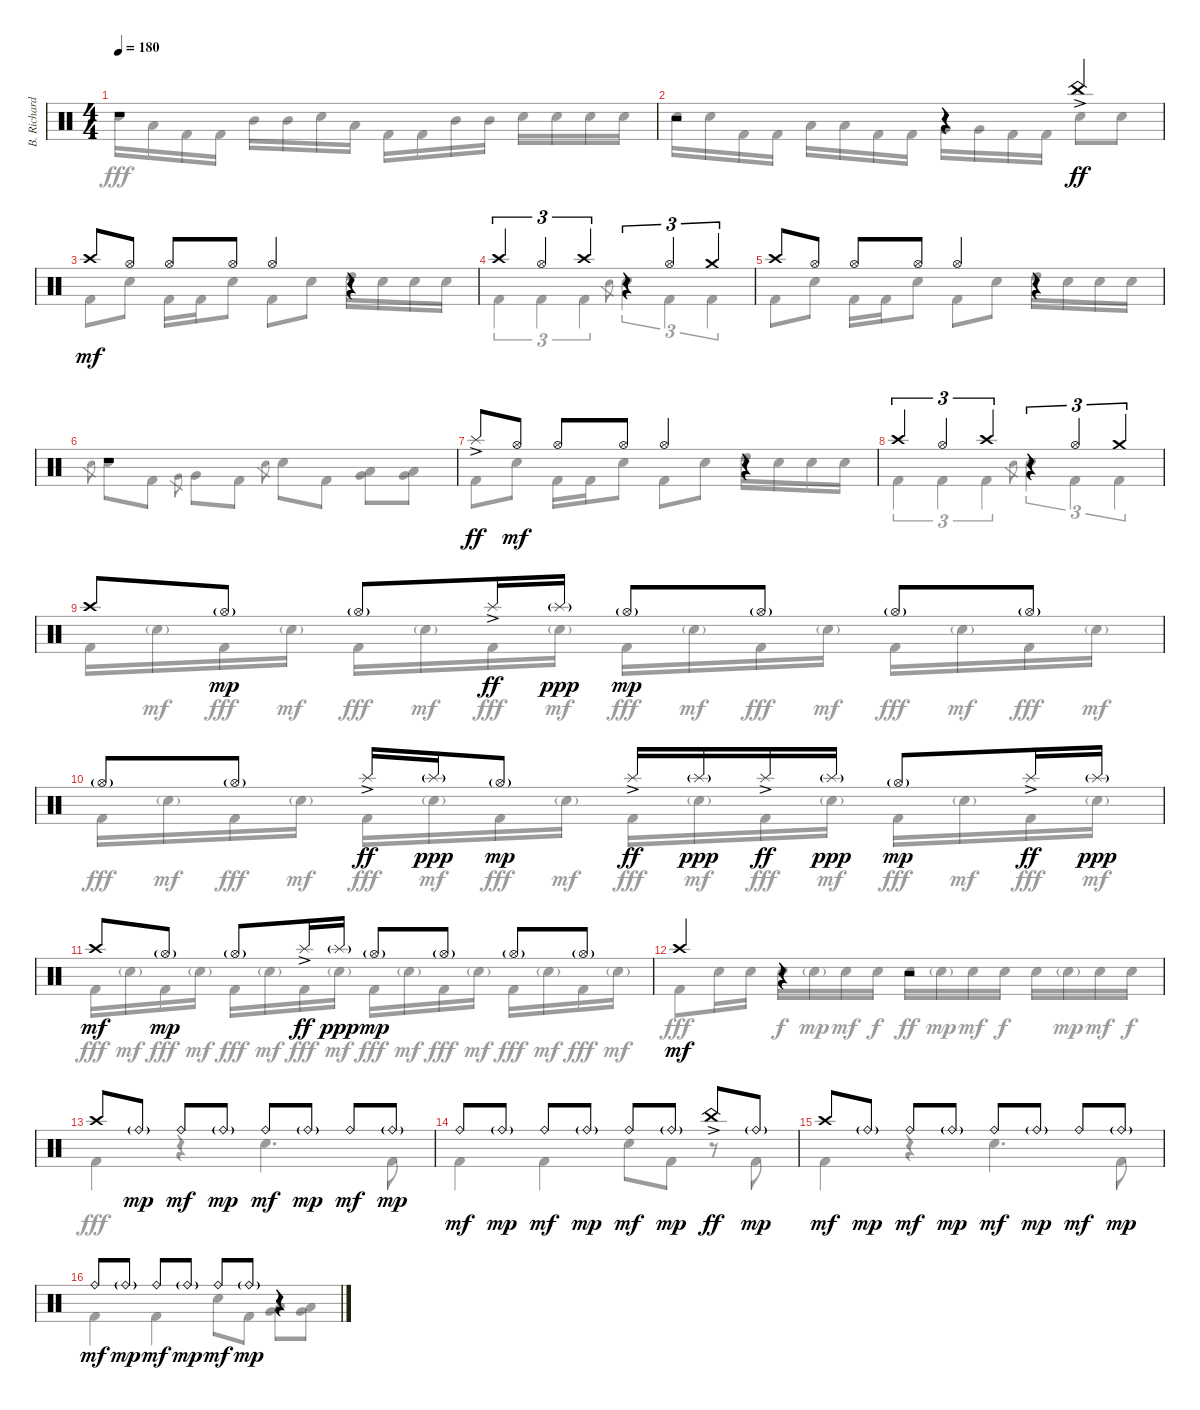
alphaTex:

\track ("B. Richardson Drums" "B. Richard") {instrument percussion}
\staff {score}
\articulation defaults
\voice
\ts (4 4)
\tempo 180
\clef neutral
\ks c
r.1{dy mf} |
r.2 r.4 "China (hit)"{ac}.4{dy ff} |
"Crash high (hit)".8{dy mf} "Hi-Hat (open)".8 "Hi-Hat (open)".8 "Hi-Hat (open)".8 "Hi-Hat (open)".4 r.4 |
"Crash high (hit)".4{tu (3 2)} "Hi-Hat (open)".4{tu (3 2)} "Crash high (hit)".4{tu (3 2)} r.4{tu (3 2)} "Hi-Hat (open)".4{tu (3 2)} "Crash medium (hit)".4{tu (3 2)} |
"Crash high (hit)".8 "Hi-Hat (open)".8 "Hi-Hat (open)".8 "Hi-Hat (open)".8 "Hi-Hat (open)".4 r.4 |
r.1 |
"Splash (hit)"{ac}.8{dy ff} "Hi-Hat (open)".8{dy mf} "Hi-Hat (open)".8 "Hi-Hat (open)".8 "Hi-Hat (open)".4 r.4 |
"Crash high (hit)".4{tu (3 2)} "Hi-Hat (open)".4{tu (3 2)} "Crash high (hit)".4{tu (3 2)} r.4{tu (3 2)} "Hi-Hat (open)".4{tu (3 2)} "Crash medium (hit)".4{tu (3 2)} |
"Crash high (hit)".8 "Hi-Hat (open)"{g}.8{dy mp} "Hi-Hat (open)"{g}.8 "Splash (hit)"{ac}.16{dy ff} "Splash (hit)"{g}.16{dy ppp} "Hi-Hat (open)"{g}.8{dy mp} "Hi-Hat (open)"{g}.8 "Hi-Hat (open)"{g}.8 "Hi-Hat (open)"{g}.8 |
"Hi-Hat (open)"{g}.8 "Hi-Hat (open)"{g}.8 "Splash (hit)"{ac}.16{dy ff} "Splash (hit)"{g}.16{dy ppp} "Hi-Hat (open)"{g}.8{dy mp} "Splash (hit)"{ac}.16{dy ff} "Splash (hit)"{g}.16{dy ppp} "Splash (hit)"{ac}.16{dy ff} "Splash (hit)"{g}.16{dy ppp} "Hi-Hat (open)"{g}.8{dy mp} "Splash (hit)"{ac}.16{dy ff} "Splash (hit)"{g}.16{dy ppp} |
"Crash high (hit)".8{dy mf} "Hi-Hat (open)"{g}.8{dy mp} "Hi-Hat (open)"{g}.8 "Splash (hit)"{ac}.16{dy ff} "Splash (hit)"{g}.16{dy ppp} "Hi-Hat (open)"{g}.8{dy mp} "Hi-Hat (open)"{g}.8 "Hi-Hat (open)"{g}.8 "Hi-Hat (open)"{g}.8 |
"Crash high (hit)".4{dy mf} r.4 r.2 |
"Crash high (hit)".8 "Ride (bell)"{g}.8{dy mp} "Ride (bell)".8{dy mf} "Ride (bell)"{g}.8{dy mp} "Ride (bell)".8{dy mf} "Ride (bell)"{g}.8{dy mp} "Ride (bell)".8{dy mf} "Ride (bell)"{g}.8{dy mp} |
"Ride (bell)".8{dy mf} "Ride (bell)"{g}.8{dy mp} "Ride (bell)".8{dy mf} "Ride (bell)"{g}.8{dy mp} "Ride (bell)".8{dy mf} "Ride (bell)"{g}.8{dy mp} "China (hit)"{ac}.8{dy ff} "Ride (bell)"{g}.8{dy mp} |
"Crash high (hit)".8{dy mf} "Ride (bell)"{g}.8{dy mp} "Ride (bell)".8{dy mf} "Ride (bell)"{g}.8{dy mp} "Ride (bell)".8{dy mf} "Ride (bell)"{g}.8{dy mp} "Ride (bell)".8{dy mf} "Ride (bell)"{g}.8{dy mp} |
"Ride (bell)".8{dy mf} "Ride (bell)"{g}.8{dy mp} "Ride (bell)".8{dy mf} "Ride (bell)"{g}.8{dy mp} "Ride (bell)".8{dy mf} "Ride (bell)"{g}.8{dy mp} r.4
\voice
\clef neutral
\ottava regular
\simile none
\ks c "Electric Snare (hit)".16{dy fff} "Low Tom (hit)".16 "Kick (hit) 2".16 "Kick (hit) 2".16 "Mid Tom (hit)".16 "Mid Tom (hit)".16 "Electric Snare (hit)".16 "Low Tom (hit)".16 "Kick (hit) 2".16 "Kick (hit) 2".16 "Mid Tom (hit)".16 "Mid Tom (hit)".16 "Electric Snare (hit)".16 "Electric Snare (hit)".16 "Electric Snare (hit)".16 "Electric Snare (hit)".16
|
"Electric Snare (hit)".16 "Electric Snare (hit)".16 "Kick (hit) 2".16 "Kick (hit) 2".16 "Low Tom (hit)".16 "Low Tom (hit)".16 "Kick (hit) 2".16 "Kick (hit) 2".16 "Very Low Tom (hit)".16 "Very Low Tom (hit)".16 "Kick (hit) 2".16 "Kick (hit) 2".16 "Electric Snare (hit)".8 "Electric Snare (hit)".8 |
"Kick (hit) 2".8 "Electric Snare (hit)".8 "Kick (hit) 2".16 "Kick (hit) 2".16 "Electric Snare (hit)".8 "Kick (hit) 2".8 "Electric Snare (hit)".8 "High Tom (hit)".16 "Electric Snare (hit)".16 "Electric Snare (hit)".16 "Electric Snare (hit)".16 |
"Kick (hit) 2".4{tu (3 2)} "Kick (hit) 2".4{tu (3 2)} "Kick (hit) 2".4{tu (3 2)} "Electric Snare (hit)".8{gr} "Electric Snare (hit)".4{tu (3 2)} "Kick (hit) 2".4{tu (3 2)} "Kick (hit) 2".4{tu (3 2)} |
"Kick (hit) 2".8 "Electric Snare (hit)".8 "Kick (hit) 2".16 "Kick (hit) 2".16 "Electric Snare (hit)".8 "Kick (hit) 2".8 "Electric Snare (hit)".8 "High Tom (hit)".16 "Electric Snare (hit)".16 "Electric Snare (hit)".16 "Electric Snare (hit)".16 |
"Electric Snare (hit)".8{gr} "Electric Snare (hit)".8 "Kick (hit) 2".8 "Very Low Tom (hit)".8{gr} "Very Low Tom (hit)".8 "Kick (hit) 2".8 "Electric Snare (hit)".8{gr} "Electric Snare (hit)".8 "Kick (hit) 2".8 ("Low Tom (hit)" "Very Low Tom (hit)").8 ("Low Tom (hit)" "Very Low Tom (hit)").8 |
"Kick (hit) 2".8 "Electric Snare (hit)".8 "Kick (hit) 2".16 "Kick (hit) 2".16 "Electric Snare (hit)".8 "Kick (hit) 2".8 "Electric Snare (hit)".8 "High Tom (hit)".16 "Electric Snare (hit)".16 "Electric Snare (hit)".16 "Electric Snare (hit)".16 |
"Kick (hit) 2".4{tu (3 2)} "Kick (hit) 2".4{tu (3 2)} "Kick (hit) 2".4{tu (3 2)} "Electric Snare (hit)".8{gr} "Electric Snare (hit)".4{tu (3 2)} "Kick (hit) 2".4{tu (3 2)} "Kick (hit) 2".4{tu (3 2)} |
"Kick (hit) 2".16 "Electric Snare (hit)"{g}.16{dy mf} "Kick (hit) 2".16{dy fff} "Electric Snare (hit)"{g}.16{dy mf} "Kick (hit) 2".16{dy fff} "Electric Snare (hit)"{g}.16{dy mf} "Kick (hit) 2".16{dy fff} "Electric Snare (hit)"{g}.16{dy mf} "Kick (hit) 2".16{dy fff} "Electric Snare (hit)"{g}.16{dy mf} "Kick (hit) 2".16{dy fff} "Electric Snare (hit)"{g}.16{dy mf} "Kick (hit) 2".16{dy fff} "Electric Snare (hit)"{g}.16{dy mf} "Kick (hit) 2".16{dy fff} "Electric Snare (hit)"{g}.16{dy mf} |
"Kick (hit) 2".16{dy fff} "Electric Snare (hit)"{g}.16{dy mf} "Kick (hit) 2".16{dy fff} "Electric Snare (hit)"{g}.16{dy mf} "Kick (hit) 2".16{dy fff} "Electric Snare (hit)"{g}.16{dy mf} "Kick (hit) 2".16{dy fff} "Electric Snare (hit)"{g}.16{dy mf} "Kick (hit) 2".16{dy fff} "Electric Snare (hit)"{g}.16{dy mf} "Kick (hit) 2".16{dy fff} "Electric Snare (hit)"{g}.16{dy mf} "Kick (hit) 2".16{dy fff} "Electric Snare (hit)"{g}.16{dy mf} "Kick (hit) 2".16{dy fff} "Electric Snare (hit)"{g}.16{dy mf} |
"Kick (hit) 2".16{dy fff} "Electric Snare (hit)"{g}.16{dy mf} "Kick (hit) 2".16{dy fff} "Electric Snare (hit)"{g}.16{dy mf} "Kick (hit) 2".16{dy fff} "Electric Snare (hit)"{g}.16{dy mf} "Kick (hit) 2".16{dy fff} "Electric Snare (hit)"{g}.16{dy mf} "Kick (hit) 2".16{dy fff} "Electric Snare (hit)"{g}.16{dy mf} "Kick (hit) 2".16{dy fff} "Electric Snare (hit)"{g}.16{dy mf} "Kick (hit) 2".16{dy fff} "Electric Snare (hit)"{g}.16{dy mf} "Kick (hit) 2".16{dy fff} "Electric Snare (hit)"{g}.16{dy mf} |
"Kick (hit) 2".8{dy fff} "Electric Snare (hit)".16 "Electric Snare (hit)".16 "Electric Snare (hit)".16{dy f} "Electric Snare (hit)"{g}.16{dy mp} "Electric Snare (hit)".16{dy mf} "Electric Snare (hit)".16{dy f} "Electric Snare (hit)".16{dy ff} "Electric Snare (hit)"{g}.16{dy mp} "Electric Snare (hit)".16{dy mf} "Electric Snare (hit)".16{dy f} "Electric Snare (hit)".16 "Electric Snare (hit)"{g}.16{dy mp} "Electric Snare (hit)".16{dy mf} "Electric Snare (hit)".16{dy f} |
"Kick (hit) 2".4{dy fff} r.4 "Electric Snare (hit)".4{d} "Kick (hit) 2".8 |
"Kick (hit) 2".4 "Kick (hit) 2".4 "Electric Snare (hit)".8 "Kick (hit) 2".8 r.8 "Kick (hit) 2".8 |
"Kick (hit) 2".4 r.4 "Electric Snare (hit)".4{d} "Kick (hit) 2".8 |
"Kick (hit) 2".4 "Kick (hit) 2".4 "Electric Snare (hit)".8 "Kick (hit) 2".8 ("Low Tom (hit)" "Very Low Tom (hit)").8 ("Low Tom (hit)" "Very Low Tom (hit)").8
